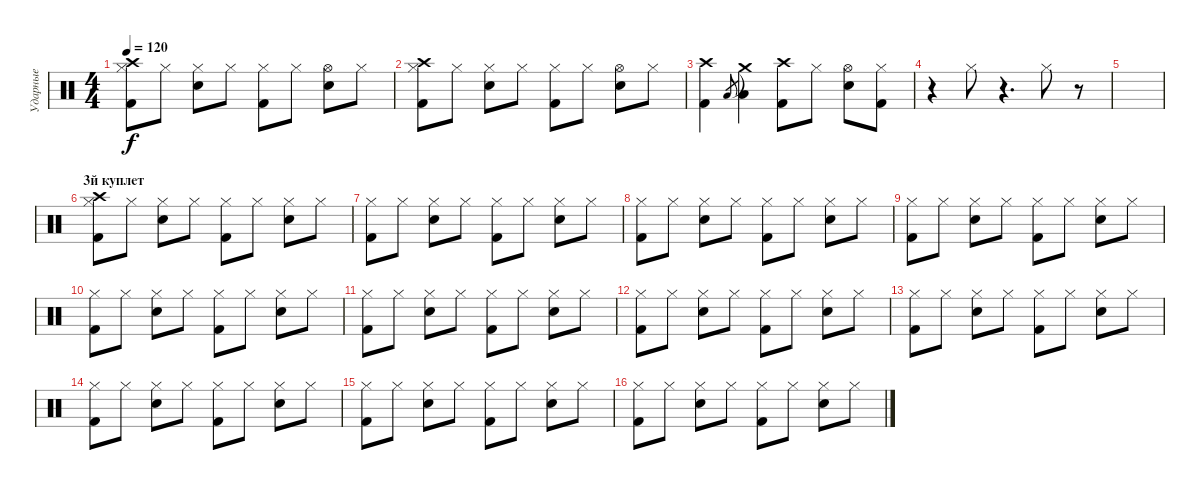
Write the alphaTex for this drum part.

\track ("Ударные" "Ударные") {instrument percussion}
\staff {score}
\articulation defaults
\ts (4 4)
\tempo 120
\clef neutral
\ks c
("Crash high (hit)" "Hi-Hat (closed)" "Kick (hit) 2").8{dy f} "Hi-Hat (closed)".8 ("Hi-Hat (closed)" "Snare (hit) 2").8 "Hi-Hat (closed)".8 ("Hi-Hat (closed)" "Kick (hit) 2").8 "Hi-Hat (closed)".8 ("Hi-Hat (open)" "Snare (hit) 2").8 "Hi-Hat (closed)".8 |
("Crash high (hit)" "Hi-Hat (closed)" "Kick (hit) 2").8 "Hi-Hat (closed)".8 ("Hi-Hat (closed)" "Snare (hit) 2").8 "Hi-Hat (closed)".8 ("Hi-Hat (closed)" "Kick (hit) 2").8 "Hi-Hat (closed)".8 ("Hi-Hat (open)" "Snare (hit) 2").8 "Hi-Hat (closed)".8 |
("Crash high (hit)" "Kick (hit) 2").4 "Low Floor Tom (hit)".8{gr} ("Crash medium (hit)"{t} "Low Floor Tom (hit)").4 ("Crash high (hit)" "Kick (hit) 2").8 "Hi-Hat (closed)".8 ("Hi-Hat (open)" "Snare (hit) 2").8 ("Hi-Hat (closed)" "Kick (hit) 2").8 |
r.4 "Hi-Hat (closed)".8 r.4{d} "Hi-Hat (closed)".8 r.8 |
|
\section ("" "3й куплет")
("Crash high (hit)" "Hi-Hat (closed)" "Kick (hit) 2").8 "Hi-Hat (closed)".8 ("Hi-Hat (closed)" "Snare (hit) 2").8 "Hi-Hat (closed)".8 ("Hi-Hat (closed)" "Kick (hit) 2").8 "Hi-Hat (closed)".8 ("Hi-Hat (closed)" "Snare (hit) 2").8 "Hi-Hat (closed)".8 |
("Hi-Hat (closed)" "Kick (hit) 2").8 "Hi-Hat (closed)".8 ("Hi-Hat (closed)" "Snare (hit) 2").8 "Hi-Hat (closed)".8 ("Hi-Hat (closed)" "Kick (hit) 2").8 "Hi-Hat (closed)".8 ("Hi-Hat (closed)" "Snare (hit) 2").8 "Hi-Hat (closed)".8 |
("Hi-Hat (closed)" "Kick (hit) 2").8 "Hi-Hat (closed)".8 ("Hi-Hat (closed)" "Snare (hit) 2").8 "Hi-Hat (closed)".8 ("Hi-Hat (closed)" "Kick (hit) 2").8 "Hi-Hat (closed)".8 ("Hi-Hat (closed)" "Snare (hit) 2").8 "Hi-Hat (closed)".8 |
("Hi-Hat (closed)" "Kick (hit) 2").8 "Hi-Hat (closed)".8 ("Hi-Hat (closed)" "Snare (hit) 2").8 "Hi-Hat (closed)".8 ("Hi-Hat (closed)" "Kick (hit) 2").8 "Hi-Hat (closed)".8 ("Hi-Hat (closed)" "Snare (hit) 2").8 "Hi-Hat (closed)".8 |
("Hi-Hat (closed)" "Kick (hit) 2").8 "Hi-Hat (closed)".8 ("Hi-Hat (closed)" "Snare (hit) 2").8 "Hi-Hat (closed)".8 ("Hi-Hat (closed)" "Kick (hit) 2").8 "Hi-Hat (closed)".8 ("Hi-Hat (closed)" "Snare (hit) 2").8 "Hi-Hat (closed)".8 |
("Hi-Hat (closed)" "Kick (hit) 2").8 "Hi-Hat (closed)".8 ("Hi-Hat (closed)" "Snare (hit) 2").8 "Hi-Hat (closed)".8 ("Hi-Hat (closed)" "Kick (hit) 2").8 "Hi-Hat (closed)".8 ("Hi-Hat (closed)" "Snare (hit) 2").8 "Hi-Hat (closed)".8 |
("Hi-Hat (closed)" "Kick (hit) 2").8 "Hi-Hat (closed)".8 ("Hi-Hat (closed)" "Snare (hit) 2").8 "Hi-Hat (closed)".8 ("Hi-Hat (closed)" "Kick (hit) 2").8 "Hi-Hat (closed)".8 ("Hi-Hat (closed)" "Snare (hit) 2").8 "Hi-Hat (closed)".8 |
("Hi-Hat (closed)" "Kick (hit) 2").8 "Hi-Hat (closed)".8 ("Hi-Hat (closed)" "Snare (hit) 2").8 "Hi-Hat (closed)".8 ("Hi-Hat (closed)" "Kick (hit) 2").8 "Hi-Hat (closed)".8 ("Hi-Hat (closed)" "Snare (hit) 2").8 "Hi-Hat (closed)".8 |
("Hi-Hat (closed)" "Kick (hit) 2").8 "Hi-Hat (closed)".8 ("Hi-Hat (closed)" "Snare (hit) 2").8 "Hi-Hat (closed)".8 ("Hi-Hat (closed)" "Kick (hit) 2").8 "Hi-Hat (closed)".8 ("Hi-Hat (closed)" "Snare (hit) 2").8 "Hi-Hat (closed)".8 |
("Hi-Hat (closed)" "Kick (hit) 2").8 "Hi-Hat (closed)".8 ("Hi-Hat (closed)" "Snare (hit) 2").8 "Hi-Hat (closed)".8 ("Hi-Hat (closed)" "Kick (hit) 2").8 "Hi-Hat (closed)".8 ("Hi-Hat (closed)" "Snare (hit) 2").8 "Hi-Hat (closed)".8 |
("Hi-Hat (closed)" "Kick (hit) 2").8 "Hi-Hat (closed)".8 ("Hi-Hat (closed)" "Snare (hit) 2").8 "Hi-Hat (closed)".8 ("Hi-Hat (closed)" "Kick (hit) 2").8 "Hi-Hat (closed)".8 ("Hi-Hat (closed)" "Snare (hit) 2").8 "Hi-Hat (closed)".8
